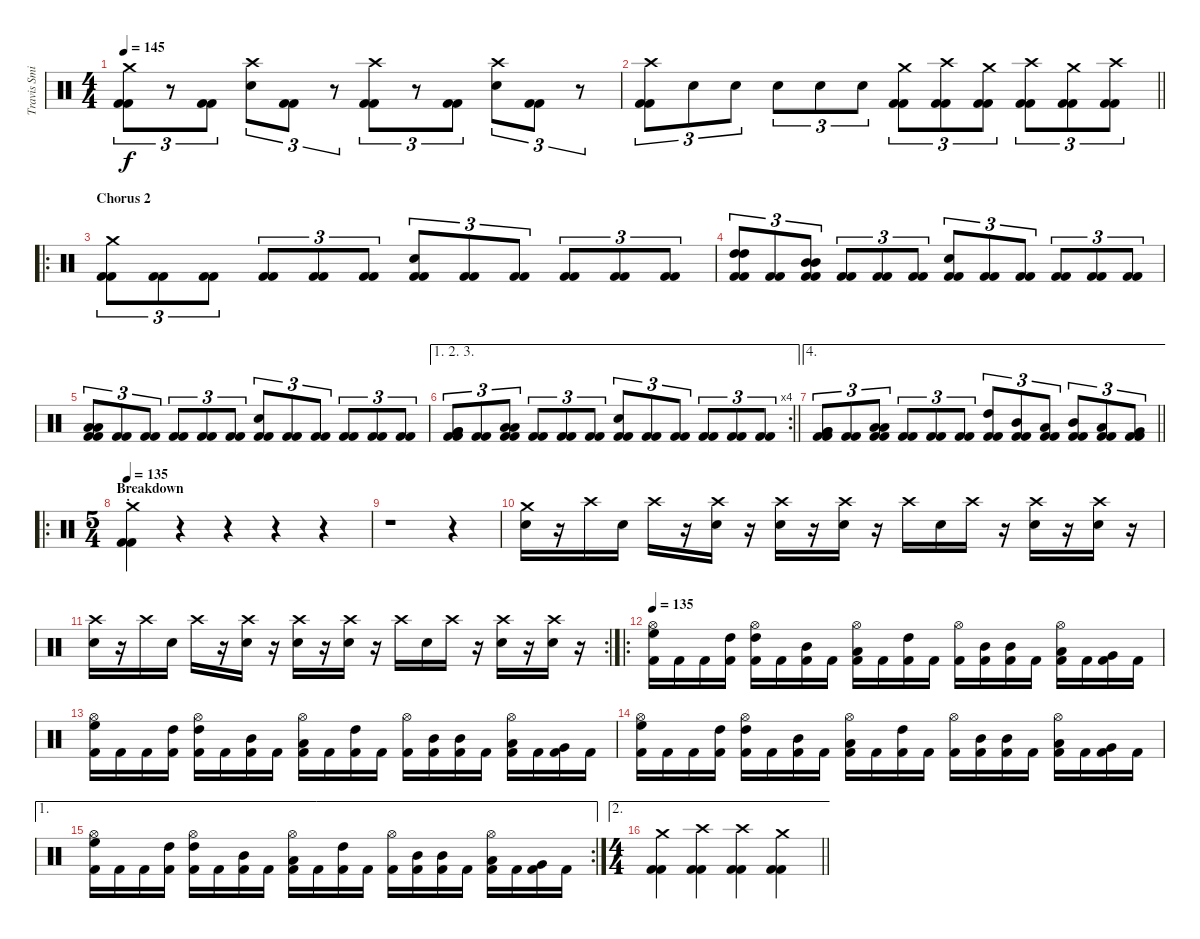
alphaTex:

\track ("Travis Smith" "Travis Smi") {instrument percussion}
\staff {score}
\articulation defaults
\ts (4 4)
\tempo 145
\clef neutral
\ks c
("Crash medium (hit)" "Kick (hit) 2" "Kick (hit) 2").8{tu (3 2) dy f} r.8{tu (3 2)} ("Kick (hit) 2" "Kick (hit) 2").8{tu (3 2)} ("Crash high (hit)" "Electric Snare (hit)").8{tu (3 2)} ("Kick (hit) 2" "Kick (hit) 2").8{tu (3 2)} r.8{tu (3 2)} ("Crash high (hit)" "Kick (hit) 2" "Kick (hit) 2").8{tu (3 2)} r.8{tu (3 2)} ("Kick (hit) 2" "Kick (hit) 2").8{tu (3 2)} ("Crash high (hit)" "Electric Snare (hit)").8{tu (3 2)} ("Kick (hit) 2" "Kick (hit) 2").8{tu (3 2)} r.8{tu (3 2)} |
\barLineRight lightlight
("Crash high (hit)" "Kick (hit) 2" "Kick (hit) 2").8{tu (3 2)} "Electric Snare (hit)".8{tu (3 2)} "Electric Snare (hit)".8{tu (3 2)} "Electric Snare (hit)".8{tu (3 2)} "Electric Snare (hit)".8{tu (3 2)} "Electric Snare (hit)".8{tu (3 2)} ("Crash medium (hit)" "Kick (hit) 2" "Kick (hit) 2").8{tu (3 2)} ("Crash high (hit)" "Kick (hit) 2" "Kick (hit) 2").8{tu (3 2)} ("Crash medium (hit)" "Kick (hit) 2" "Kick (hit) 2").8{tu (3 2)} ("Crash high (hit)" "Kick (hit) 2" "Kick (hit) 2").8{tu (3 2)} ("Crash medium (hit)" "Kick (hit) 2" "Kick (hit) 2").8{tu (3 2)} ("Crash high (hit)" "Kick (hit) 2" "Kick (hit) 2").8{tu (3 2)} |
\ro
\section ("" "Chorus 2")
("Crash medium (hit)" "Kick (hit) 2" "Kick (hit) 2").8{tu (3 2)} ("Kick (hit) 2" "Kick (hit) 2").8{tu (3 2)} ("Kick (hit) 2" "Kick (hit) 2").8{tu (3 2)} ("Kick (hit) 2" "Kick (hit) 2").8{tu (3 2)} ("Kick (hit) 2" "Kick (hit) 2").8{tu (3 2)} ("Kick (hit) 2" "Kick (hit) 2").8{tu (3 2)} ("Electric Snare (hit)" "Kick (hit) 2" "Kick (hit) 2").8{tu (3 2)} ("Kick (hit) 2" "Kick (hit) 2").8{tu (3 2)} ("Kick (hit) 2" "Kick (hit) 2").8{tu (3 2)} ("Kick (hit) 2" "Kick (hit) 2").8{tu (3 2)} ("Kick (hit) 2" "Kick (hit) 2").8{tu (3 2)} ("Kick (hit) 2" "Kick (hit) 2").8{tu (3 2)} |
("High Tom (hit)" "High Tom (hit)" "Kick (hit) 2" "Kick (hit) 2").8{tu (3 2)} ("Kick (hit) 2" "Kick (hit) 2").8{tu (3 2)} ("Mid Tom (hit)" "Mid Tom (hit)" "Kick (hit) 2" "Kick (hit) 2").8{tu (3 2)} ("Kick (hit) 2" "Kick (hit) 2").8{tu (3 2)} ("Kick (hit) 2" "Kick (hit) 2").8{tu (3 2)} ("Kick (hit) 2" "Kick (hit) 2").8{tu (3 2)} ("Electric Snare (hit)" "Kick (hit) 2" "Kick (hit) 2").8{tu (3 2)} ("Kick (hit) 2" "Kick (hit) 2").8{tu (3 2)} ("Kick (hit) 2" "Kick (hit) 2").8{tu (3 2)} ("Kick (hit) 2" "Kick (hit) 2").8{tu (3 2)} ("Kick (hit) 2" "Kick (hit) 2").8{tu (3 2)} ("Kick (hit) 2" "Kick (hit) 2").8{tu (3 2)} |
("Low Tom (hit)" "Low Tom (hit)" "Kick (hit) 2" "Kick (hit) 2").8{tu (3 2)} ("Kick (hit) 2" "Kick (hit) 2").8{tu (3 2)} ("Kick (hit) 2" "Kick (hit) 2").8{tu (3 2)} ("Kick (hit) 2" "Kick (hit) 2").8{tu (3 2)} ("Kick (hit) 2" "Kick (hit) 2").8{tu (3 2)} ("Kick (hit) 2" "Kick (hit) 2").8{tu (3 2)} ("Electric Snare (hit)" "Kick (hit) 2" "Kick (hit) 2").8{tu (3 2)} ("Kick (hit) 2" "Kick (hit) 2").8{tu (3 2)} ("Kick (hit) 2" "Kick (hit) 2").8{tu (3 2)} ("Kick (hit) 2" "Kick (hit) 2").8{tu (3 2)} ("Kick (hit) 2" "Kick (hit) 2").8{tu (3 2)} ("Kick (hit) 2" "Kick (hit) 2").8{tu (3 2)} |
\ae (1 2 3)
\rc 4
\barLineRight lightlight
("Very Low Tom (hit)" "Very Low Tom (hit)" "Kick (hit) 2" "Kick (hit) 2").8{tu (3 2)} ("Kick (hit) 2" "Kick (hit) 2").8{tu (3 2)} ("Low Floor Tom (hit)" "Low Floor Tom (hit)" "Kick (hit) 2" "Kick (hit) 2").8{tu (3 2)} ("Kick (hit) 2" "Kick (hit) 2").8{tu (3 2)} ("Kick (hit) 2" "Kick (hit) 2").8{tu (3 2)} ("Kick (hit) 2" "Kick (hit) 2").8{tu (3 2)} ("Electric Snare (hit)" "Kick (hit) 2" "Kick (hit) 2").8{tu (3 2)} ("Kick (hit) 2" "Kick (hit) 2").8{tu (3 2)} ("Kick (hit) 2" "Kick (hit) 2").8{tu (3 2)} ("Kick (hit) 2" "Kick (hit) 2").8{tu (3 2)} ("Kick (hit) 2" "Kick (hit) 2").8{tu (3 2)} ("Kick (hit) 2" "Kick (hit) 2").8{tu (3 2)} |
\ae 4
\barLineRight lightlight
("Very Low Tom (hit)" "Very Low Tom (hit)" "Kick (hit) 2" "Kick (hit) 2").8{tu (3 2)} ("Kick (hit) 2" "Kick (hit) 2").8{tu (3 2)} ("Low Floor Tom (hit)" "Low Floor Tom (hit)" "Kick (hit) 2" "Kick (hit) 2").8{tu (3 2)} ("Kick (hit) 2" "Kick (hit) 2").8{tu (3 2)} ("Kick (hit) 2" "Kick (hit) 2").8{tu (3 2)} ("Kick (hit) 2" "Kick (hit) 2").8{tu (3 2)} ("High Tom (hit)" "Kick (hit) 2" "Kick (hit) 2").8{tu (3 2)} ("Mid Tom (hit)" "Kick (hit) 2" "Kick (hit) 2").8{tu (3 2)} ("Low Tom (hit)" "Kick (hit) 2" "Kick (hit) 2").8{tu (3 2)} ("Mid Tom (hit)" "Kick (hit) 2" "Kick (hit) 2").8{tu (3 2)} ("Low Tom (hit)" "Kick (hit) 2" "Kick (hit) 2").8{tu (3 2)} ("Very Low Tom (hit)" "Kick (hit) 2" "Kick (hit) 2").8{tu (3 2)} |
\ro
\ts (5 4)
\section ("" "Breakdown")
\tempo 135
("Crash medium (hit)"{st} "Kick (hit) 2" "Kick (hit) 2").4 r.4 r.4 r.4 r.4 |
r.1 r.4 |
("Crash medium (hit)" "Electric Snare (hit)").16 r.16 "Crash high (hit)".16 "Electric Snare (hit)".16 "Crash high (hit)".16 r.16 ("Crash high (hit)" "Electric Snare (hit)").16 r.16 ("Crash high (hit)" "Electric Snare (hit)").16 r.16 ("Crash high (hit)" "Electric Snare (hit)").16 r.16 "Crash high (hit)".16 "Electric Snare (hit)".16 "Crash high (hit)".16 r.16 ("Crash high (hit)" "Electric Snare (hit)").16 r.16 ("Crash high (hit)" "Electric Snare (hit)").16 r.16 |
\rc 2
("Crash high (hit)" "Electric Snare (hit)").16 r.16 "Crash high (hit)".16 "Electric Snare (hit)".16 "Crash high (hit)".16 r.16 ("Crash high (hit)" "Electric Snare (hit)").16 r.16 ("Crash high (hit)" "Electric Snare (hit)").16 r.16 ("Crash high (hit)" "Electric Snare (hit)").16 r.16 "Crash high (hit)".16 "Electric Snare (hit)".16 "Crash high (hit)".16 r.16 ("Crash high (hit)" "Electric Snare (hit)").16 r.16 ("Crash high (hit)" "Electric Snare (hit)").16 r.16 |
\ro
\tempo 135
("High Floor Tom (hit)" "Hi-Hat (open)" "Kick (hit) 2").16 "Kick (hit) 2".16 "Kick (hit) 2".16 ("High Tom (hit)" "Kick (hit) 2").16 ("High Tom (hit)" "Hi-Hat (open)" "Kick (hit) 2").16 "Kick (hit) 2".16 ("Mid Tom (hit)" "Kick (hit) 2").16 "Kick (hit) 2".16 ("Low Tom (hit)" "Hi-Hat (open)" "Kick (hit) 2").16 "Kick (hit) 2".16 ("High Tom (hit)" "Kick (hit) 2").16 "Kick (hit) 2".16 ("Hi-Hat (open)" "Kick (hit) 2").16 ("Mid Tom (hit)" "Kick (hit) 2").16 ("Mid Tom (hit)" "Kick (hit) 2").16 "Kick (hit) 2".16 ("Low Tom (hit)" "Hi-Hat (open)" "Kick (hit) 2").16 "Kick (hit) 2".16 ("Very Low Tom (hit)" "Kick (hit) 2").16 "Kick (hit) 2".16 |
("High Floor Tom (hit)" "Hi-Hat (open)" "Kick (hit) 2").16 "Kick (hit) 2".16 "Kick (hit) 2".16 ("High Tom (hit)" "Kick (hit) 2").16 ("High Tom (hit)" "Hi-Hat (open)" "Kick (hit) 2").16 "Kick (hit) 2".16 ("Mid Tom (hit)" "Kick (hit) 2").16 "Kick (hit) 2".16 ("Low Tom (hit)" "Hi-Hat (open)" "Kick (hit) 2").16 "Kick (hit) 2".16 ("High Tom (hit)" "Kick (hit) 2").16 "Kick (hit) 2".16 ("Hi-Hat (open)" "Kick (hit) 2").16 ("Mid Tom (hit)" "Kick (hit) 2").16 ("Mid Tom (hit)" "Kick (hit) 2").16 "Kick (hit) 2".16 ("Low Tom (hit)" "Hi-Hat (open)" "Kick (hit) 2").16 "Kick (hit) 2".16 ("Very Low Tom (hit)" "Kick (hit) 2").16 "Kick (hit) 2".16 |
("High Floor Tom (hit)" "Hi-Hat (open)" "Kick (hit) 2").16 "Kick (hit) 2".16 "Kick (hit) 2".16 ("High Tom (hit)" "Kick (hit) 2").16 ("High Tom (hit)" "Hi-Hat (open)" "Kick (hit) 2").16 "Kick (hit) 2".16 ("Mid Tom (hit)" "Kick (hit) 2").16 "Kick (hit) 2".16 ("Low Tom (hit)" "Hi-Hat (open)" "Kick (hit) 2").16 "Kick (hit) 2".16 ("High Tom (hit)" "Kick (hit) 2").16 "Kick (hit) 2".16 ("Hi-Hat (open)" "Kick (hit) 2").16 ("Mid Tom (hit)" "Kick (hit) 2").16 ("Mid Tom (hit)" "Kick (hit) 2").16 "Kick (hit) 2".16 ("Low Tom (hit)" "Hi-Hat (open)" "Kick (hit) 2").16 "Kick (hit) 2".16 ("Very Low Tom (hit)" "Kick (hit) 2").16 "Kick (hit) 2".16 |
\ae 1
\rc 2
("High Floor Tom (hit)" "Hi-Hat (open)" "Kick (hit) 2").16 "Kick (hit) 2".16 "Kick (hit) 2".16 ("High Tom (hit)" "Kick (hit) 2").16 ("High Tom (hit)" "Hi-Hat (open)" "Kick (hit) 2").16 "Kick (hit) 2".16 ("Mid Tom (hit)" "Kick (hit) 2").16 "Kick (hit) 2".16 ("Low Tom (hit)" "Hi-Hat (open)" "Kick (hit) 2").16 "Kick (hit) 2".16 ("High Tom (hit)" "Kick (hit) 2").16 "Kick (hit) 2".16 ("Hi-Hat (open)" "Kick (hit) 2").16 ("Mid Tom (hit)" "Kick (hit) 2").16 ("Mid Tom (hit)" "Kick (hit) 2").16 "Kick (hit) 2".16 ("Low Tom (hit)" "Hi-Hat (open)" "Kick (hit) 2").16 "Kick (hit) 2".16 ("Very Low Tom (hit)" "Kick (hit) 2").16 "Kick (hit) 2".16 |
\ae 2
\ts (4 4)
\barLineRight lightlight
("Crash medium (hit)" "Kick (hit) 2" "Kick (hit) 2").4 ("Crash high (hit)" "Kick (hit) 2" "Kick (hit) 2").4 ("Crash high (hit)" "Kick (hit) 2" "Kick (hit) 2").4 ("Crash medium (hit)" "Kick (hit) 2" "Kick (hit) 2").4
